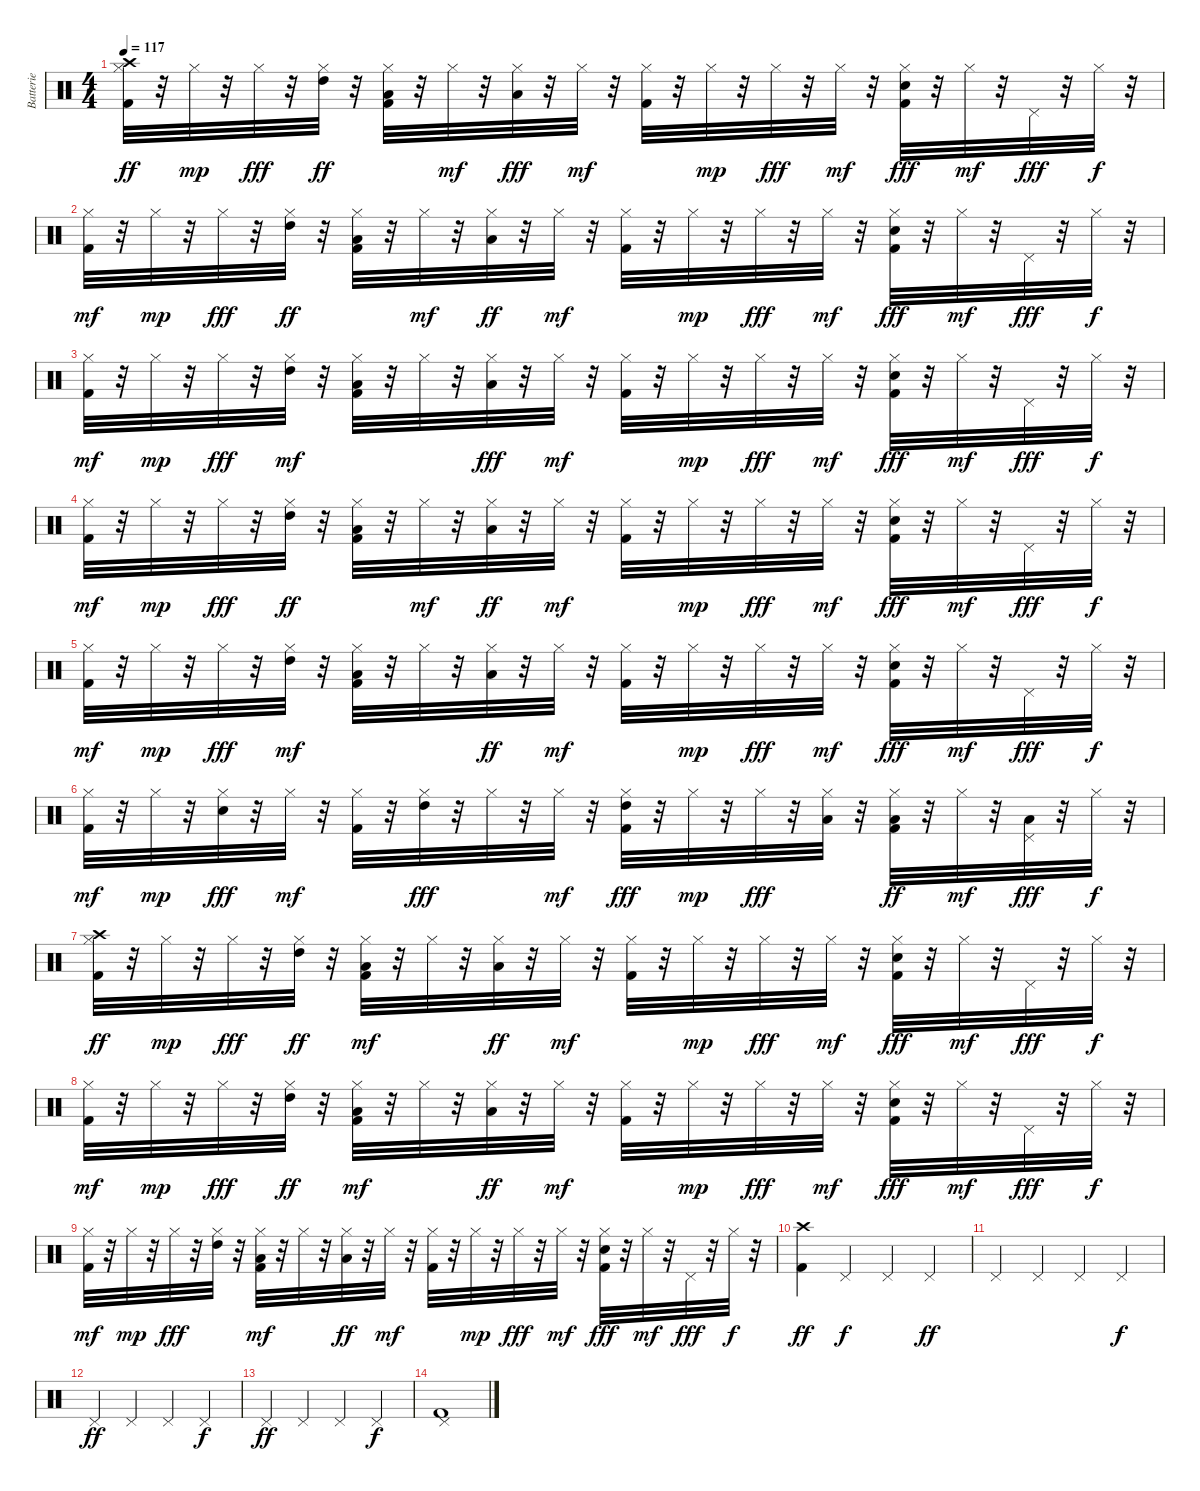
\track ("Batterie" "Batterie") {instrument percussion}
\staff {score}
\articulation defaults
\ts (4 4)
\tempo 117
\clef neutral
\ks c
("Kick (hit) 2" "Hi-Hat (closed)" "Crash high (hit)").32{dy ff} r.32 "Hi-Hat (closed)".32{dy mp} r.32 "Hi-Hat (closed)".32{dy fff} r.32 ("Hi-Hat (closed)" "High Tom (hit)").32{dy ff} r.32 ("Kick (hit) 2" "Hi-Hat (closed)" "Low Tom (hit)").32 r.32 "Hi-Hat (closed)".32{dy mf} r.32 ("Hi-Hat (closed)" "Low Floor Tom (hit)").32{dy fff} r.32 "Hi-Hat (closed)".32{dy mf} r.32 ("Kick (hit) 2" "Hi-Hat (closed)").32 r.32 "Hi-Hat (closed)".32{dy mp} r.32 "Hi-Hat (closed)".32{dy fff} r.32 "Hi-Hat (closed)".32{dy mf} r.32 ("Kick (hit) 2" "Electric Snare (hit)" "Hi-Hat (closed)").32{dy fff} r.32 "Hi-Hat (closed)".32{dy mf} r.32 "Pedal Hi-Hat (hit)".32{dy fff} r.32 "Hi-Hat (closed)".32{dy f} r.32 |
("Kick (hit) 2" "Hi-Hat (closed)").32{dy mf} r.32 "Hi-Hat (closed)".32{dy mp} r.32 "Hi-Hat (closed)".32{dy fff} r.32 ("Hi-Hat (closed)" "High Tom (hit)").32{dy ff} r.32 ("Kick (hit) 2" "Hi-Hat (closed)" "Low Tom (hit)").32 r.32 "Hi-Hat (closed)".32{dy mf} r.32 ("Hi-Hat (closed)" "Low Floor Tom (hit)").32{dy ff} r.32 "Hi-Hat (closed)".32{dy mf} r.32 ("Kick (hit) 2" "Hi-Hat (closed)").32 r.32 "Hi-Hat (closed)".32{dy mp} r.32 "Hi-Hat (closed)".32{dy fff} r.32 "Hi-Hat (closed)".32{dy mf} r.32 ("Kick (hit) 2" "Electric Snare (hit)" "Hi-Hat (closed)").32{dy fff} r.32 "Hi-Hat (closed)".32{dy mf} r.32 "Pedal Hi-Hat (hit)".32{dy fff} r.32 "Hi-Hat (closed)".32{dy f} r.32 |
("Kick (hit) 2" "Hi-Hat (closed)").32{dy mf} r.32 "Hi-Hat (closed)".32{dy mp} r.32 "Hi-Hat (closed)".32{dy fff} r.32 ("Hi-Hat (closed)" "High Tom (hit)").32{dy mf} r.32 ("Kick (hit) 2" "Hi-Hat (closed)" "Low Tom (hit)").32 r.32 "Hi-Hat (closed)".32 r.32 ("Hi-Hat (closed)" "Low Floor Tom (hit)").32{dy fff} r.32 "Hi-Hat (closed)".32{dy mf} r.32 ("Kick (hit) 2" "Hi-Hat (closed)").32 r.32 "Hi-Hat (closed)".32{dy mp} r.32 "Hi-Hat (closed)".32{dy fff} r.32 "Hi-Hat (closed)".32{dy mf} r.32 ("Kick (hit) 2" "Electric Snare (hit)" "Hi-Hat (closed)").32{dy fff} r.32 "Hi-Hat (closed)".32{dy mf} r.32 "Pedal Hi-Hat (hit)".32{dy fff} r.32 "Hi-Hat (closed)".32{dy f} r.32 |
("Kick (hit) 2" "Hi-Hat (closed)").32{dy mf} r.32 "Hi-Hat (closed)".32{dy mp} r.32 "Hi-Hat (closed)".32{dy fff} r.32 ("Hi-Hat (closed)" "High Tom (hit)").32{dy ff} r.32 ("Kick (hit) 2" "Hi-Hat (closed)" "Low Tom (hit)").32 r.32 "Hi-Hat (closed)".32{dy mf} r.32 ("Hi-Hat (closed)" "Low Floor Tom (hit)").32{dy ff} r.32 "Hi-Hat (closed)".32{dy mf} r.32 ("Kick (hit) 2" "Hi-Hat (closed)").32 r.32 "Hi-Hat (closed)".32{dy mp} r.32 "Hi-Hat (closed)".32{dy fff} r.32 "Hi-Hat (closed)".32{dy mf} r.32 ("Kick (hit) 2" "Electric Snare (hit)" "Hi-Hat (closed)").32{dy fff} r.32 "Hi-Hat (closed)".32{dy mf} r.32 "Pedal Hi-Hat (hit)".32{dy fff} r.32 "Hi-Hat (closed)".32{dy f} r.32 |
("Kick (hit) 2" "Hi-Hat (closed)").32{dy mf} r.32 "Hi-Hat (closed)".32{dy mp} r.32 "Hi-Hat (closed)".32{dy fff} r.32 ("Hi-Hat (closed)" "High Tom (hit)").32{dy mf} r.32 ("Kick (hit) 2" "Hi-Hat (closed)" "Low Tom (hit)").32 r.32 "Hi-Hat (closed)".32 r.32 ("Hi-Hat (closed)" "Low Floor Tom (hit)").32{dy ff} r.32 "Hi-Hat (closed)".32{dy mf} r.32 ("Kick (hit) 2" "Hi-Hat (closed)").32 r.32 "Hi-Hat (closed)".32{dy mp} r.32 "Hi-Hat (closed)".32{dy fff} r.32 "Hi-Hat (closed)".32{dy mf} r.32 ("Kick (hit) 2" "Electric Snare (hit)" "Hi-Hat (closed)").32{dy fff} r.32 "Hi-Hat (closed)".32{dy mf} r.32 "Pedal Hi-Hat (hit)".32{dy fff} r.32 "Hi-Hat (closed)".32{dy f} r.32 |
("Kick (hit) 2" "Hi-Hat (closed)").32{dy mf} r.32 "Hi-Hat (closed)".32{dy mp} r.32 ("Electric Snare (hit)" "Hi-Hat (closed)").32{dy fff} r.32 "Hi-Hat (closed)".32{dy mf} r.32 ("Kick (hit) 2" "Hi-Hat (closed)").32 r.32 ("Hi-Hat (closed)" "High Tom (hit)").32{dy fff} r.32 "Hi-Hat (closed)".32 r.32 "Hi-Hat (closed)".32{dy mf} r.32 ("Kick (hit) 2" "Hi-Hat (closed)" "High Tom (hit)").32{dy fff} r.32 "Hi-Hat (closed)".32{dy mp} r.32 "Hi-Hat (closed)".32{dy fff} r.32 ("Hi-Hat (closed)" "Low Tom (hit)").32 r.32 ("Kick (hit) 2" "Hi-Hat (closed)" "Low Tom (hit)").32{dy ff} r.32 "Hi-Hat (closed)".32{dy mf} r.32 ("Pedal Hi-Hat (hit)" "Low Floor Tom (hit)").32{dy fff} r.32 "Hi-Hat (closed)".32{dy f} r.32 |
("Kick (hit) 2" "Hi-Hat (closed)" "Crash high (hit)").32{dy ff} r.32 "Hi-Hat (closed)".32{dy mp} r.32 "Hi-Hat (closed)".32{dy fff} r.32 ("Hi-Hat (closed)" "High Tom (hit)").32{dy ff} r.32 ("Kick (hit) 2" "Hi-Hat (closed)" "Low Tom (hit)").32{dy mf} r.32 "Hi-Hat (closed)".32 r.32 ("Hi-Hat (closed)" "Low Floor Tom (hit)").32{dy ff} r.32 "Hi-Hat (closed)".32{dy mf} r.32 ("Kick (hit) 2" "Hi-Hat (closed)").32 r.32 "Hi-Hat (closed)".32{dy mp} r.32 "Hi-Hat (closed)".32{dy fff} r.32 "Hi-Hat (closed)".32{dy mf} r.32 ("Kick (hit) 2" "Electric Snare (hit)" "Hi-Hat (closed)").32{dy fff} r.32 "Hi-Hat (closed)".32{dy mf} r.32 "Pedal Hi-Hat (hit)".32{dy fff} r.32 "Hi-Hat (closed)".32{dy f} r.32 |
("Kick (hit) 2" "Hi-Hat (closed)").32{dy mf} r.32 "Hi-Hat (closed)".32{dy mp} r.32 "Hi-Hat (closed)".32{dy fff} r.32 ("Hi-Hat (closed)" "High Tom (hit)").32{dy ff} r.32 ("Kick (hit) 2" "Hi-Hat (closed)" "Low Tom (hit)").32{dy mf} r.32 "Hi-Hat (closed)".32 r.32 ("Hi-Hat (closed)" "Low Floor Tom (hit)").32{dy ff} r.32 "Hi-Hat (closed)".32{dy mf} r.32 ("Kick (hit) 2" "Hi-Hat (closed)").32 r.32 "Hi-Hat (closed)".32{dy mp} r.32 "Hi-Hat (closed)".32{dy fff} r.32 "Hi-Hat (closed)".32{dy mf} r.32 ("Kick (hit) 2" "Electric Snare (hit)" "Hi-Hat (closed)").32{dy fff} r.32 "Hi-Hat (closed)".32{dy mf} r.32 "Pedal Hi-Hat (hit)".32{dy fff} r.32 "Hi-Hat (closed)".32{dy f} r.32 |
("Kick (hit) 2" "Hi-Hat (closed)").32{dy mf} r.32 "Hi-Hat (closed)".32{dy mp} r.32 "Hi-Hat (closed)".32{dy fff} r.32 ("Hi-Hat (closed)" "High Tom (hit)").32 r.32 ("Kick (hit) 2" "Hi-Hat (closed)" "Low Tom (hit)").32{dy mf} r.32 "Hi-Hat (closed)".32 r.32 ("Hi-Hat (closed)" "Low Floor Tom (hit)").32{dy ff} r.32 "Hi-Hat (closed)".32{dy mf} r.32 ("Kick (hit) 2" "Hi-Hat (closed)").32 r.32 "Hi-Hat (closed)".32{dy mp} r.32 "Hi-Hat (closed)".32{dy fff} r.32 "Hi-Hat (closed)".32{dy mf} r.32 ("Kick (hit) 2" "Electric Snare (hit)" "Hi-Hat (closed)").32{dy fff} r.32 "Hi-Hat (closed)".32{dy mf} r.32 "Pedal Hi-Hat (hit)".32{dy fff} r.32 "Hi-Hat (closed)".32{dy f} r.32 |
("Kick (hit) 2" "Crash high (hit)").4{dy ff} "Pedal Hi-Hat (hit)".4{dy f} "Pedal Hi-Hat (hit)".4 "Pedal Hi-Hat (hit)".4{dy ff} |
"Pedal Hi-Hat (hit)".4 "Pedal Hi-Hat (hit)".4 "Pedal Hi-Hat (hit)".4 "Pedal Hi-Hat (hit)".4{dy f} |
"Pedal Hi-Hat (hit)".4{dy ff} "Pedal Hi-Hat (hit)".4 "Pedal Hi-Hat (hit)".4 "Pedal Hi-Hat (hit)".4{dy f} |
"Pedal Hi-Hat (hit)".4{dy ff} "Pedal Hi-Hat (hit)".4 "Pedal Hi-Hat (hit)".4 "Pedal Hi-Hat (hit)".4{dy f} |
("Pedal Hi-Hat (hit)" "Kick (hit) 2").1
